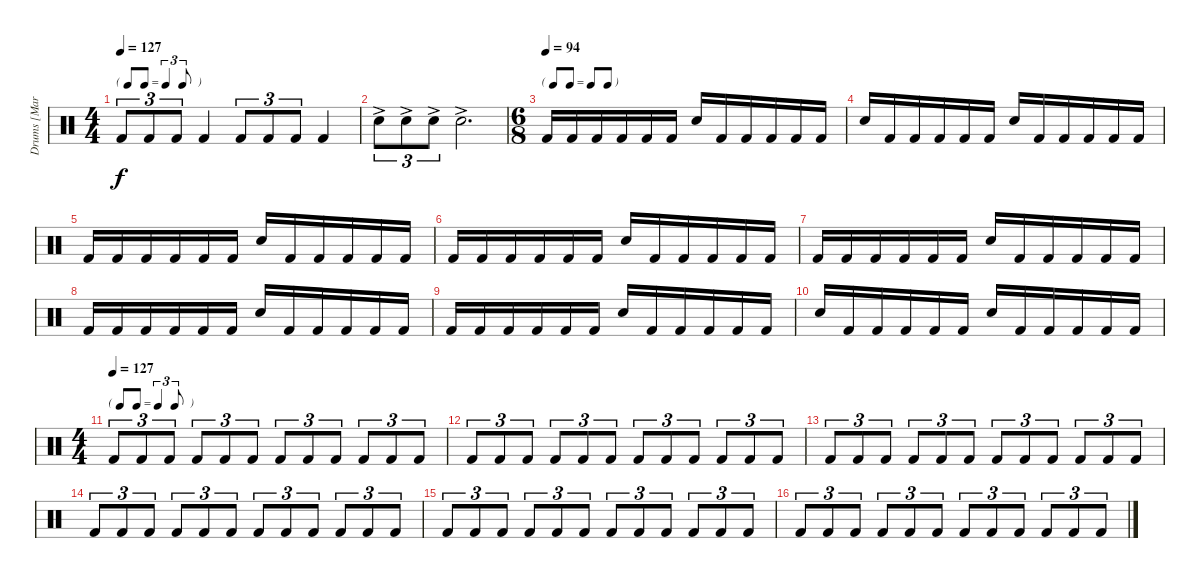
\track ("Drums [Martin Lopez]" "Drums [Mar") {instrument percussion}
\staff {score}
\articulation defaults
\ts (4 4)
\tf triplet8th
\tempo 127
\clef neutral
\ks c "Kick (hit) 2".8{tu (3 2) dy f} "Kick (hit) 2".8{tu (3 2)} "Kick (hit) 2".8{tu (3 2)} "Kick (hit) 2".4 "Kick (hit) 2".8{tu (3 2)} "Kick (hit) 2".8{tu (3 2)} "Kick (hit) 2".8{tu (3 2)} "Kick (hit) 2".4
|
"Snare (hit) 2"{ac}.8{tu (3 2)} "Snare (hit) 2"{ac}.8{tu (3 2)} "Snare (hit) 2"{ac}.8{tu (3 2)} "Snare (hit) 2"{ac}.2{d} |
\ts (6 8)
\tf none
\tempo (94)
"Kick (hit) 2".16 "Kick (hit) 2".16 "Kick (hit) 2".16 "Kick (hit) 2".16 "Kick (hit) 2".16 "Kick (hit) 2".16 "Snare (hit) 2".16 "Kick (hit) 2".16 "Kick (hit) 2".16 "Kick (hit) 2".16 "Kick (hit) 2".16 "Kick (hit) 2".16 |
"Snare (hit) 2".16 "Kick (hit) 2".16 "Kick (hit) 2".16 "Kick (hit) 2".16 "Kick (hit) 2".16 "Kick (hit) 2".16 "Snare (hit) 2".16 "Kick (hit) 2".16 "Kick (hit) 2".16 "Kick (hit) 2".16 "Kick (hit) 2".16 "Kick (hit) 2".16 |
"Kick (hit) 2".16 "Kick (hit) 2".16 "Kick (hit) 2".16 "Kick (hit) 2".16 "Kick (hit) 2".16 "Kick (hit) 2".16 "Snare (hit) 2".16 "Kick (hit) 2".16 "Kick (hit) 2".16 "Kick (hit) 2".16 "Kick (hit) 2".16 "Kick (hit) 2".16 |
"Kick (hit) 2".16 "Kick (hit) 2".16 "Kick (hit) 2".16 "Kick (hit) 2".16 "Kick (hit) 2".16 "Kick (hit) 2".16 "Snare (hit) 2".16 "Kick (hit) 2".16 "Kick (hit) 2".16 "Kick (hit) 2".16 "Kick (hit) 2".16 "Kick (hit) 2".16 |
"Kick (hit) 2".16 "Kick (hit) 2".16 "Kick (hit) 2".16 "Kick (hit) 2".16 "Kick (hit) 2".16 "Kick (hit) 2".16 "Snare (hit) 2".16 "Kick (hit) 2".16 "Kick (hit) 2".16 "Kick (hit) 2".16 "Kick (hit) 2".16 "Kick (hit) 2".16 |
"Kick (hit) 2".16 "Kick (hit) 2".16 "Kick (hit) 2".16 "Kick (hit) 2".16 "Kick (hit) 2".16 "Kick (hit) 2".16 "Snare (hit) 2".16 "Kick (hit) 2".16 "Kick (hit) 2".16 "Kick (hit) 2".16 "Kick (hit) 2".16 "Kick (hit) 2".16 |
"Kick (hit) 2".16 "Kick (hit) 2".16 "Kick (hit) 2".16 "Kick (hit) 2".16 "Kick (hit) 2".16 "Kick (hit) 2".16 "Snare (hit) 2".16 "Kick (hit) 2".16 "Kick (hit) 2".16 "Kick (hit) 2".16 "Kick (hit) 2".16 "Kick (hit) 2".16 |
"Snare (hit) 2".16 "Kick (hit) 2".16 "Kick (hit) 2".16 "Kick (hit) 2".16 "Kick (hit) 2".16 "Kick (hit) 2".16 "Snare (hit) 2".16 "Kick (hit) 2".16 "Kick (hit) 2".16 "Kick (hit) 2".16 "Kick (hit) 2".16 "Kick (hit) 2".16 |
\ts (4 4)
\tf triplet8th
\tempo (127)
"Kick (hit) 2".8{tu (3 2)} "Kick (hit) 2".8{tu (3 2)} "Kick (hit) 2".8{tu (3 2)} "Kick (hit) 2".8{tu (3 2)} "Kick (hit) 2".8{tu (3 2)} "Kick (hit) 2".8{tu (3 2)} "Kick (hit) 2".8{tu (3 2)} "Kick (hit) 2".8{tu (3 2)} "Kick (hit) 2".8{tu (3 2)} "Kick (hit) 2".8{tu (3 2)} "Kick (hit) 2".8{tu (3 2)} "Kick (hit) 2".8{tu (3 2)} |
"Kick (hit) 2".8{tu (3 2)} "Kick (hit) 2".8{tu (3 2)} "Kick (hit) 2".8{tu (3 2)} "Kick (hit) 2".8{tu (3 2)} "Kick (hit) 2".8{tu (3 2)} "Kick (hit) 2".8{tu (3 2)} "Kick (hit) 2".8{tu (3 2)} "Kick (hit) 2".8{tu (3 2)} "Kick (hit) 2".8{tu (3 2)} "Kick (hit) 2".8{tu (3 2)} "Kick (hit) 2".8{tu (3 2)} "Kick (hit) 2".8{tu (3 2)} |
"Kick (hit) 2".8{tu (3 2)} "Kick (hit) 2".8{tu (3 2)} "Kick (hit) 2".8{tu (3 2)} "Kick (hit) 2".8{tu (3 2)} "Kick (hit) 2".8{tu (3 2)} "Kick (hit) 2".8{tu (3 2)} "Kick (hit) 2".8{tu (3 2)} "Kick (hit) 2".8{tu (3 2)} "Kick (hit) 2".8{tu (3 2)} "Kick (hit) 2".8{tu (3 2)} "Kick (hit) 2".8{tu (3 2)} "Kick (hit) 2".8{tu (3 2)} |
"Kick (hit) 2".8{tu (3 2)} "Kick (hit) 2".8{tu (3 2)} "Kick (hit) 2".8{tu (3 2)} "Kick (hit) 2".8{tu (3 2)} "Kick (hit) 2".8{tu (3 2)} "Kick (hit) 2".8{tu (3 2)} "Kick (hit) 2".8{tu (3 2)} "Kick (hit) 2".8{tu (3 2)} "Kick (hit) 2".8{tu (3 2)} "Kick (hit) 2".8{tu (3 2)} "Kick (hit) 2".8{tu (3 2)} "Kick (hit) 2".8{tu (3 2)} |
"Kick (hit) 2".8{tu (3 2)} "Kick (hit) 2".8{tu (3 2)} "Kick (hit) 2".8{tu (3 2)} "Kick (hit) 2".8{tu (3 2)} "Kick (hit) 2".8{tu (3 2)} "Kick (hit) 2".8{tu (3 2)} "Kick (hit) 2".8{tu (3 2)} "Kick (hit) 2".8{tu (3 2)} "Kick (hit) 2".8{tu (3 2)} "Kick (hit) 2".8{tu (3 2)} "Kick (hit) 2".8{tu (3 2)} "Kick (hit) 2".8{tu (3 2)} |
"Kick (hit) 2".8{tu (3 2)} "Kick (hit) 2".8{tu (3 2)} "Kick (hit) 2".8{tu (3 2)} "Kick (hit) 2".8{tu (3 2)} "Kick (hit) 2".8{tu (3 2)} "Kick (hit) 2".8{tu (3 2)} "Kick (hit) 2".8{tu (3 2)} "Kick (hit) 2".8{tu (3 2)} "Kick (hit) 2".8{tu (3 2)} "Kick (hit) 2".8{tu (3 2)} "Kick (hit) 2".8{tu (3 2)} "Kick (hit) 2".8{tu (3 2)}
